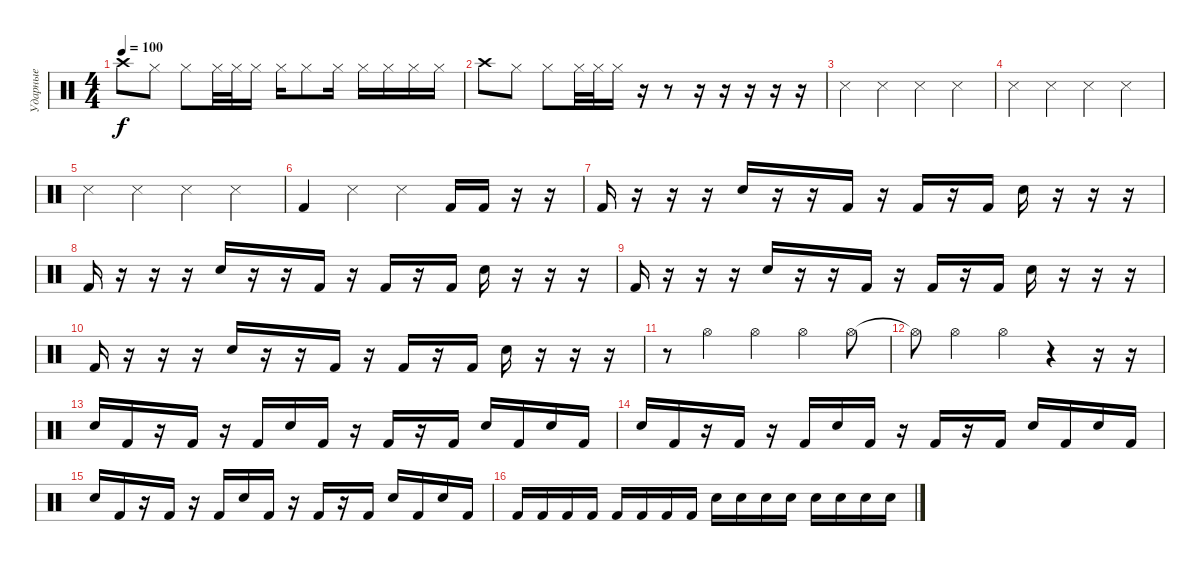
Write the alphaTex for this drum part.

\track ("Ударные" "Ударные") {instrument percussion}
\staff {score}
\articulation defaults
\ts (4 4)
\tempo 100
\clef neutral
\ks c "Crash high (hit)".8{dy f} "Hi-Hat (closed)".8 "Hi-Hat (closed)".8 "Hi-Hat (closed)".32 "Hi-Hat (closed)".32 "Hi-Hat (closed)".16 "Hi-Hat (closed)".16 "Hi-Hat (closed)".8 "Hi-Hat (closed)".16 "Hi-Hat (closed)".16 "Hi-Hat (closed)".16 "Hi-Hat (closed)".16 "Hi-Hat (closed)".16
|
"Crash high (hit)".8 "Hi-Hat (closed)".8 "Hi-Hat (closed)".8 "Hi-Hat (closed)".32 "Hi-Hat (closed)".32 "Hi-Hat (closed)".16 r.16 r.8 r.16 r.16 r.16 r.16 r.16 |
"Snare (side stick) 3".4 "Snare (side stick) 3".4 "Snare (side stick) 3".4 "Snare (side stick) 3".4 |
"Snare (side stick) 3".4 "Snare (side stick) 3".4 "Snare (side stick) 3".4 "Snare (side stick) 3".4 |
"Snare (side stick) 3".4 "Snare (side stick) 3".4 "Snare (side stick) 3".4 "Snare (side stick) 3".4 |
"Kick (hit) 2".4 "Snare (side stick) 3".4 "Snare (side stick) 3".4 "Kick (hit) 2".16 "Kick (hit) 2".16 r.16 r.16 |
"Kick (hit) 2".16 r.16 r.16 r.16 "Electric Snare (hit)".16 r.16 r.16 "Kick (hit) 2".16 r.16 "Kick (hit) 2".16 r.16 "Kick (hit) 2".16 "Electric Snare (hit)".16 r.16 r.16 r.16 |
"Kick (hit) 2".16 r.16 r.16 r.16 "Electric Snare (hit)".16 r.16 r.16 "Kick (hit) 2".16 r.16 "Kick (hit) 2".16 r.16 "Kick (hit) 2".16 "Electric Snare (hit)".16 r.16 r.16 r.16 |
"Kick (hit) 2".16 r.16 r.16 r.16 "Electric Snare (hit)".16 r.16 r.16 "Kick (hit) 2".16 r.16 "Kick (hit) 2".16 r.16 "Kick (hit) 2".16 "Electric Snare (hit)".16 r.16 r.16 r.16 |
"Kick (hit) 2".16 r.16 r.16 r.16 "Electric Snare (hit)".16 r.16 r.16 "Kick (hit) 2".16 r.16 "Kick (hit) 2".16 r.16 "Kick (hit) 2".16 "Electric Snare (hit)".16 r.16 r.16 r.16 |
r.8 "Hi-Hat (open)".4 "Hi-Hat (open)".4 "Hi-Hat (open)".4 "Hi-Hat (open)".8 |
"Hi-Hat (open)"{t}.8 "Hi-Hat (open)".4 "Hi-Hat (open)".4 r.4 r.16 r.16 |
"Electric Snare (hit)".16 "Kick (hit) 2".16 r.16 "Kick (hit) 2".16 r.16 "Kick (hit) 2".16 "Electric Snare (hit)".16 "Kick (hit) 2".16 r.16 "Kick (hit) 2".16 r.16 "Kick (hit) 2".16 "Electric Snare (hit)".16 "Kick (hit) 2".16 "Electric Snare (hit)".16 "Kick (hit) 2".16 |
"Electric Snare (hit)".16 "Kick (hit) 2".16 r.16 "Kick (hit) 2".16 r.16 "Kick (hit) 2".16 "Electric Snare (hit)".16 "Kick (hit) 2".16 r.16 "Kick (hit) 2".16 r.16 "Kick (hit) 2".16 "Electric Snare (hit)".16 "Kick (hit) 2".16 "Electric Snare (hit)".16 "Kick (hit) 2".16 |
"Electric Snare (hit)".16 "Kick (hit) 2".16 r.16 "Kick (hit) 2".16 r.16 "Kick (hit) 2".16 "Electric Snare (hit)".16 "Kick (hit) 2".16 r.16 "Kick (hit) 2".16 r.16 "Kick (hit) 2".16 "Electric Snare (hit)".16 "Kick (hit) 2".16 "Electric Snare (hit)".16 "Kick (hit) 2".16 |
"Kick (hit) 2".16 "Kick (hit) 2".16 "Kick (hit) 2".16 "Kick (hit) 2".16 "Kick (hit) 2".16 "Kick (hit) 2".16 "Kick (hit) 2".16 "Kick (hit) 2".16 "Electric Snare (hit)".16 "Electric Snare (hit)".16 "Electric Snare (hit)".16 "Electric Snare (hit)".16 "Electric Snare (hit)".16 "Electric Snare (hit)".16 "Electric Snare (hit)".16 "Electric Snare (hit)".16
